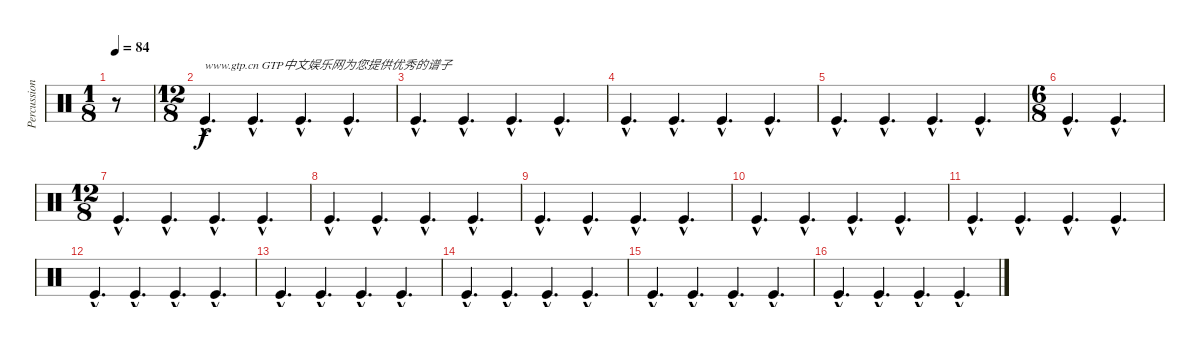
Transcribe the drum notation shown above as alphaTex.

\track ("Percussion" "Percussion") {instrument percussion}
\staff {score}
\articulation defaults
\ts (1 8)
\tempo 84
\clef neutral
\ks c
r.8{dy f} |
\ts (12 8)
"Kick (hit)"{hac}.4{d txt "www.gtp.cn GTP中文娱乐网为您提供优秀的谱子"} "Kick (hit)"{hac}.4{d} "Kick (hit)"{hac}.4{d} "Kick (hit)"{hac}.4{d} |
"Kick (hit)"{hac}.4{d} "Kick (hit)"{hac}.4{d} "Kick (hit)"{hac}.4{d} "Kick (hit)"{hac}.4{d} |
"Kick (hit)"{hac}.4{d} "Kick (hit)"{hac}.4{d} "Kick (hit)"{hac}.4{d} "Kick (hit)"{hac}.4{d} |
"Kick (hit)"{hac}.4{d} "Kick (hit)"{hac}.4{d} "Kick (hit)"{hac}.4{d} "Kick (hit)"{hac}.4{d} |
\ts (6 8)
"Kick (hit)"{hac}.4{d} "Kick (hit)"{hac}.4{d} |
\ts (12 8)
"Kick (hit)"{hac}.4{d} "Kick (hit)"{hac}.4{d} "Kick (hit)"{hac}.4{d} "Kick (hit)"{hac}.4{d} |
"Kick (hit)"{hac}.4{d} "Kick (hit)"{hac}.4{d} "Kick (hit)"{hac}.4{d} "Kick (hit)"{hac}.4{d} |
"Kick (hit)"{hac}.4{d} "Kick (hit)"{hac}.4{d} "Kick (hit)"{hac}.4{d} "Kick (hit)"{hac}.4{d} |
"Kick (hit)"{hac}.4{d} "Kick (hit)"{hac}.4{d} "Kick (hit)"{hac}.4{d} "Kick (hit)"{hac}.4{d} |
"Kick (hit)"{hac}.4{d} "Kick (hit)"{hac}.4{d} "Kick (hit)"{hac}.4{d} "Kick (hit)"{hac}.4{d} |
"Kick (hit)"{hac}.4{d} "Kick (hit)"{hac}.4{d} "Kick (hit)"{hac}.4{d} "Kick (hit)"{hac}.4{d} |
"Kick (hit)"{hac}.4{d} "Kick (hit)"{hac}.4{d} "Kick (hit)"{hac}.4{d} "Kick (hit)"{hac}.4{d} |
"Kick (hit)"{hac}.4{d} "Kick (hit)"{hac}.4{d} "Kick (hit)"{hac}.4{d} "Kick (hit)"{hac}.4{d} |
"Kick (hit)"{hac}.4{d} "Kick (hit)"{hac}.4{d} "Kick (hit)"{hac}.4{d} "Kick (hit)"{hac}.4{d} |
"Kick (hit)"{hac}.4{d} "Kick (hit)"{hac}.4{d} "Kick (hit)"{hac}.4{d} "Kick (hit)"{hac}.4{d}
